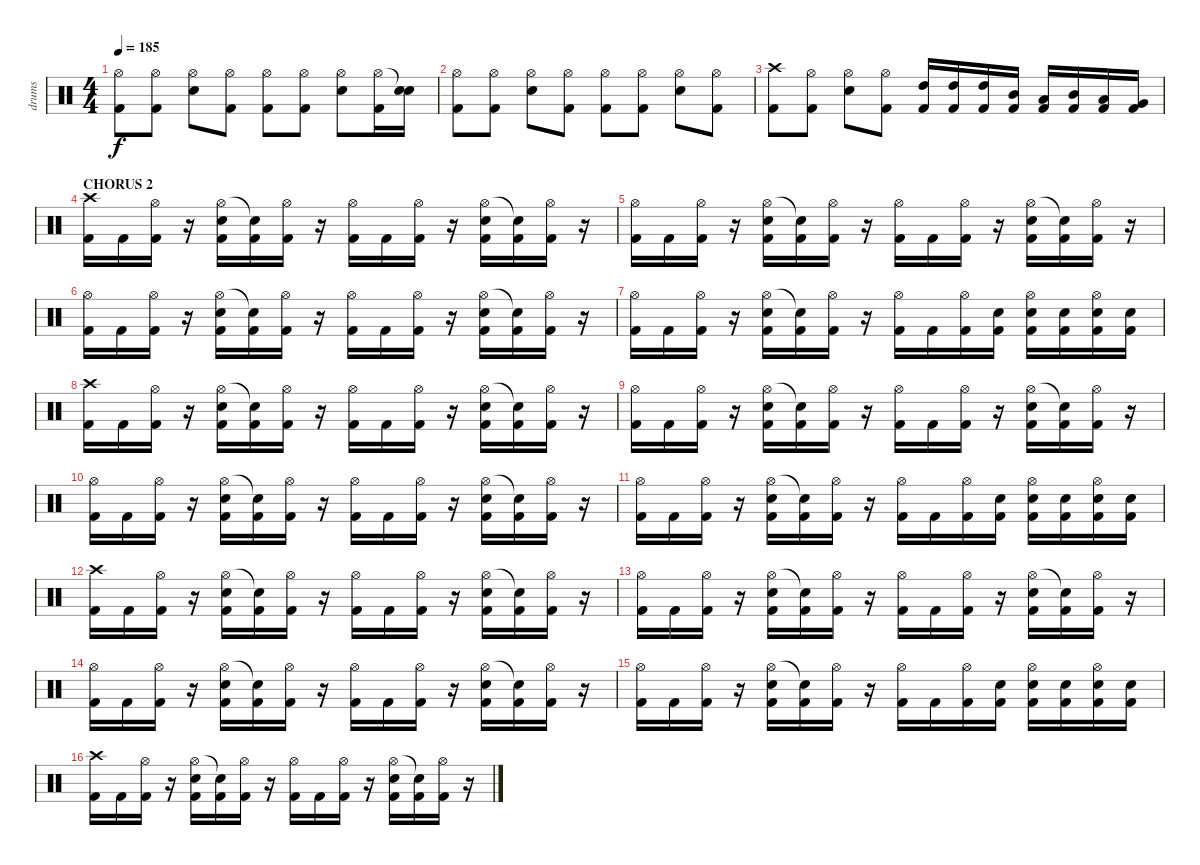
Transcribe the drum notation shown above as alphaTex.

\track ("drums" "drums") {instrument percussion}
\staff {score}
\articulation defaults
\ts (4 4)
\tempo 185
\clef neutral
\ks c
("Hi-Hat (open)" "Kick (hit) 2").8{dy f} ("Hi-Hat (open)" "Kick (hit) 2").8 ("Hi-Hat (open)" "Electric Snare (hit)").8 ("Hi-Hat (open)" "Kick (hit) 2").8 ("Hi-Hat (open)" "Kick (hit) 2").8 ("Hi-Hat (open)" "Kick (hit) 2").8 ("Hi-Hat (open)" "Electric Snare (hit)").8 ("Hi-Hat (open)" "Kick (hit) 2").16 ("Snare (hit)"{t} "Electric Snare (hit)").16 |
("Hi-Hat (open)" "Kick (hit) 2").8 ("Hi-Hat (open)" "Kick (hit) 2").8 ("Hi-Hat (open)" "Electric Snare (hit)").8 ("Hi-Hat (open)" "Kick (hit) 2").8 ("Hi-Hat (open)" "Kick (hit) 2").8 ("Hi-Hat (open)" "Kick (hit) 2").8 ("Hi-Hat (open)" "Electric Snare (hit)").8 ("Hi-Hat (open)" "Kick (hit) 2").8 |
("Crash high (hit)" "Kick (hit) 2").8 ("Hi-Hat (open)" "Kick (hit) 2").8 ("Hi-Hat (open)" "Electric Snare (hit)").8 ("Hi-Hat (open)" "Kick (hit) 2").8 ("High Tom (hit)" "Kick (hit) 2").16 ("High Tom (hit)" "Kick (hit) 2").16 ("High Tom (hit)" "Kick (hit) 2").16 ("Mid Tom (hit)" "Kick (hit) 2").16 ("Low Tom (hit)" "Kick (hit) 2").16 ("Mid Tom (hit)" "Kick (hit) 2").16 ("Low Tom (hit)" "Kick (hit) 2").16 ("Very Low Tom (hit)" "Kick (hit) 2").16 |
\section ("" "CHORUS 2")
("Crash high (hit)" "Kick (hit) 2").16 "Kick (hit) 2".16 ("Hi-Hat (open)" "Kick (hit) 2").16 r.16 ("Hi-Hat (open)" "Electric Snare (hit)" "Kick (hit) 2").16 ("Snare (hit)"{t} "Kick (hit) 2").16 ("Hi-Hat (open)" "Kick (hit) 2").16 r.16 ("Hi-Hat (open)" "Kick (hit) 2").16 "Kick (hit) 2".16 ("Hi-Hat (open)" "Kick (hit) 2").16 r.16 ("Hi-Hat (open)" "Electric Snare (hit)" "Kick (hit) 2").16 ("Snare (hit)"{t} "Kick (hit) 2").16 ("Hi-Hat (open)" "Kick (hit) 2").16 r.16 |
("Hi-Hat (open)" "Kick (hit) 2").16 "Kick (hit) 2".16 ("Hi-Hat (open)" "Kick (hit) 2").16 r.16 ("Hi-Hat (open)" "Electric Snare (hit)" "Kick (hit) 2").16 ("Snare (hit)"{t} "Kick (hit) 2").16 ("Hi-Hat (open)" "Kick (hit) 2").16 r.16 ("Hi-Hat (open)" "Kick (hit) 2").16 "Kick (hit) 2".16 ("Hi-Hat (open)" "Kick (hit) 2").16 r.16 ("Hi-Hat (open)" "Electric Snare (hit)" "Kick (hit) 2").16 ("Snare (hit)"{t} "Kick (hit) 2").16 ("Hi-Hat (open)" "Kick (hit) 2").16 r.16 |
("Hi-Hat (open)" "Kick (hit) 2").16 "Kick (hit) 2".16 ("Hi-Hat (open)" "Kick (hit) 2").16 r.16 ("Hi-Hat (open)" "Electric Snare (hit)" "Kick (hit) 2").16 ("Snare (hit)"{t} "Kick (hit) 2").16 ("Hi-Hat (open)" "Kick (hit) 2").16 r.16 ("Hi-Hat (open)" "Kick (hit) 2").16 "Kick (hit) 2".16 ("Hi-Hat (open)" "Kick (hit) 2").16 r.16 ("Hi-Hat (open)" "Electric Snare (hit)" "Kick (hit) 2").16 ("Snare (hit)"{t} "Kick (hit) 2").16 ("Hi-Hat (open)" "Kick (hit) 2").16 r.16 |
("Hi-Hat (open)" "Kick (hit) 2").16 "Kick (hit) 2".16 ("Hi-Hat (open)" "Kick (hit) 2").16 r.16 ("Hi-Hat (open)" "Electric Snare (hit)" "Kick (hit) 2").16 ("Snare (hit)"{t} "Kick (hit) 2").16 ("Hi-Hat (open)" "Kick (hit) 2").16 r.16 ("Hi-Hat (open)" "Kick (hit) 2").16 "Kick (hit) 2".16 ("Hi-Hat (open)" "Kick (hit) 2").16 ("Electric Snare (hit)" "Kick (hit) 2").16 ("Hi-Hat (open)" "Electric Snare (hit)" "Kick (hit) 2").16 ("Electric Snare (hit)" "Kick (hit) 2").16 ("Hi-Hat (open)" "Electric Snare (hit)" "Kick (hit) 2").16 ("Electric Snare (hit)" "Kick (hit) 2").16 |
("Crash high (hit)" "Kick (hit) 2").16 "Kick (hit) 2".16 ("Hi-Hat (open)" "Kick (hit) 2").16 r.16 ("Hi-Hat (open)" "Electric Snare (hit)" "Kick (hit) 2").16 ("Snare (hit)"{t} "Kick (hit) 2").16 ("Hi-Hat (open)" "Kick (hit) 2").16 r.16 ("Hi-Hat (open)" "Kick (hit) 2").16 "Kick (hit) 2".16 ("Hi-Hat (open)" "Kick (hit) 2").16 r.16 ("Hi-Hat (open)" "Electric Snare (hit)" "Kick (hit) 2").16 ("Snare (hit)"{t} "Kick (hit) 2").16 ("Hi-Hat (open)" "Kick (hit) 2").16 r.16 |
("Hi-Hat (open)" "Kick (hit) 2").16 "Kick (hit) 2".16 ("Hi-Hat (open)" "Kick (hit) 2").16 r.16 ("Hi-Hat (open)" "Electric Snare (hit)" "Kick (hit) 2").16 ("Snare (hit)"{t} "Kick (hit) 2").16 ("Hi-Hat (open)" "Kick (hit) 2").16 r.16 ("Hi-Hat (open)" "Kick (hit) 2").16 "Kick (hit) 2".16 ("Hi-Hat (open)" "Kick (hit) 2").16 r.16 ("Hi-Hat (open)" "Electric Snare (hit)" "Kick (hit) 2").16 ("Snare (hit)"{t} "Kick (hit) 2").16 ("Hi-Hat (open)" "Kick (hit) 2").16 r.16 |
("Hi-Hat (open)" "Kick (hit) 2").16 "Kick (hit) 2".16 ("Hi-Hat (open)" "Kick (hit) 2").16 r.16 ("Hi-Hat (open)" "Electric Snare (hit)" "Kick (hit) 2").16 ("Snare (hit)"{t} "Kick (hit) 2").16 ("Hi-Hat (open)" "Kick (hit) 2").16 r.16 ("Hi-Hat (open)" "Kick (hit) 2").16 "Kick (hit) 2".16 ("Hi-Hat (open)" "Kick (hit) 2").16 r.16 ("Hi-Hat (open)" "Electric Snare (hit)" "Kick (hit) 2").16 ("Snare (hit)"{t} "Kick (hit) 2").16 ("Hi-Hat (open)" "Kick (hit) 2").16 r.16 |
("Hi-Hat (open)" "Kick (hit) 2").16 "Kick (hit) 2".16 ("Hi-Hat (open)" "Kick (hit) 2").16 r.16 ("Hi-Hat (open)" "Electric Snare (hit)" "Kick (hit) 2").16 ("Snare (hit)"{t} "Kick (hit) 2").16 ("Hi-Hat (open)" "Kick (hit) 2").16 r.16 ("Hi-Hat (open)" "Kick (hit) 2").16 "Kick (hit) 2".16 ("Hi-Hat (open)" "Kick (hit) 2").16 ("Electric Snare (hit)" "Kick (hit) 2").16 ("Hi-Hat (open)" "Electric Snare (hit)" "Kick (hit) 2").16 ("Electric Snare (hit)" "Kick (hit) 2").16 ("Hi-Hat (open)" "Electric Snare (hit)" "Kick (hit) 2").16 ("Electric Snare (hit)" "Kick (hit) 2").16 |
("Crash high (hit)" "Kick (hit) 2").16 "Kick (hit) 2".16 ("Hi-Hat (open)" "Kick (hit) 2").16 r.16 ("Hi-Hat (open)" "Electric Snare (hit)" "Kick (hit) 2").16 ("Snare (hit)"{t} "Kick (hit) 2").16 ("Hi-Hat (open)" "Kick (hit) 2").16 r.16 ("Hi-Hat (open)" "Kick (hit) 2").16 "Kick (hit) 2".16 ("Hi-Hat (open)" "Kick (hit) 2").16 r.16 ("Hi-Hat (open)" "Electric Snare (hit)" "Kick (hit) 2").16 ("Snare (hit)"{t} "Kick (hit) 2").16 ("Hi-Hat (open)" "Kick (hit) 2").16 r.16 |
("Hi-Hat (open)" "Kick (hit) 2").16 "Kick (hit) 2".16 ("Hi-Hat (open)" "Kick (hit) 2").16 r.16 ("Hi-Hat (open)" "Electric Snare (hit)" "Kick (hit) 2").16 ("Snare (hit)"{t} "Kick (hit) 2").16 ("Hi-Hat (open)" "Kick (hit) 2").16 r.16 ("Hi-Hat (open)" "Kick (hit) 2").16 "Kick (hit) 2".16 ("Hi-Hat (open)" "Kick (hit) 2").16 r.16 ("Hi-Hat (open)" "Electric Snare (hit)" "Kick (hit) 2").16 ("Snare (hit)"{t} "Kick (hit) 2").16 ("Hi-Hat (open)" "Kick (hit) 2").16 r.16 |
("Hi-Hat (open)" "Kick (hit) 2").16 "Kick (hit) 2".16 ("Hi-Hat (open)" "Kick (hit) 2").16 r.16 ("Hi-Hat (open)" "Electric Snare (hit)" "Kick (hit) 2").16 ("Snare (hit)"{t} "Kick (hit) 2").16 ("Hi-Hat (open)" "Kick (hit) 2").16 r.16 ("Hi-Hat (open)" "Kick (hit) 2").16 "Kick (hit) 2".16 ("Hi-Hat (open)" "Kick (hit) 2").16 r.16 ("Hi-Hat (open)" "Electric Snare (hit)" "Kick (hit) 2").16 ("Snare (hit)"{t} "Kick (hit) 2").16 ("Hi-Hat (open)" "Kick (hit) 2").16 r.16 |
("Hi-Hat (open)" "Kick (hit) 2").16 "Kick (hit) 2".16 ("Hi-Hat (open)" "Kick (hit) 2").16 r.16 ("Hi-Hat (open)" "Electric Snare (hit)" "Kick (hit) 2").16 ("Snare (hit)"{t} "Kick (hit) 2").16 ("Hi-Hat (open)" "Kick (hit) 2").16 r.16 ("Hi-Hat (open)" "Kick (hit) 2").16 "Kick (hit) 2".16 ("Hi-Hat (open)" "Kick (hit) 2").16 ("Electric Snare (hit)" "Kick (hit) 2").16 ("Hi-Hat (open)" "Electric Snare (hit)" "Kick (hit) 2").16 ("Electric Snare (hit)" "Kick (hit) 2").16 ("Hi-Hat (open)" "Electric Snare (hit)" "Kick (hit) 2").16 ("Electric Snare (hit)" "Kick (hit) 2").16 |
("Crash high (hit)" "Kick (hit) 2").16 "Kick (hit) 2".16 ("Hi-Hat (open)" "Kick (hit) 2").16 r.16 ("Hi-Hat (open)" "Electric Snare (hit)" "Kick (hit) 2").16 ("Snare (hit)"{t} "Kick (hit) 2").16 ("Hi-Hat (open)" "Kick (hit) 2").16 r.16 ("Hi-Hat (open)" "Kick (hit) 2").16 "Kick (hit) 2".16 ("Hi-Hat (open)" "Kick (hit) 2").16 r.16 ("Hi-Hat (open)" "Electric Snare (hit)" "Kick (hit) 2").16 ("Snare (hit)"{t} "Kick (hit) 2").16 ("Hi-Hat (open)" "Kick (hit) 2").16 r.16
